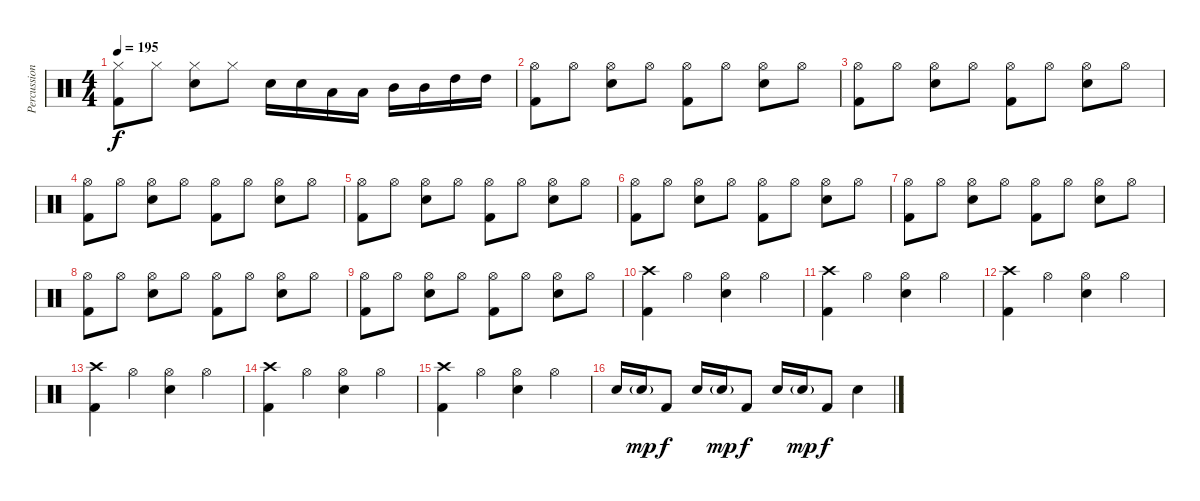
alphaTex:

\track ("Percussions" "Percussion") {instrument percussion}
\staff {score}
\articulation defaults
\ts (4 4)
\tempo 195
\clef neutral
\ks c
("Hi-Hat (closed)" "Kick (hit) 2").8{dy f} "Hi-Hat (closed)".8 ("Hi-Hat (closed)" "Electric Snare (hit)").8 "Hi-Hat (closed)".8 "Electric Snare (hit)".16 "Electric Snare (hit)".16 "Low Tom (hit)".16 "Low Tom (hit)".16 "Mid Tom (hit)".16 "Mid Tom (hit)".16 "High Tom (hit)".16 "High Tom (hit)".16 |
("Hi-Hat (open)" "Kick (hit) 2").8 "Hi-Hat (open)".8 ("Hi-Hat (open)" "Electric Snare (hit)").8 "Hi-Hat (open)".8 ("Hi-Hat (open)" "Kick (hit) 2").8 "Hi-Hat (open)".8 ("Hi-Hat (open)" "Electric Snare (hit)").8 "Hi-Hat (open)".8 |
("Hi-Hat (open)" "Kick (hit) 2").8 "Hi-Hat (open)".8 ("Hi-Hat (open)" "Electric Snare (hit)").8 "Hi-Hat (open)".8 ("Hi-Hat (open)" "Kick (hit) 2").8 "Hi-Hat (open)".8 ("Hi-Hat (open)" "Electric Snare (hit)").8 "Hi-Hat (open)".8 |
("Hi-Hat (open)" "Kick (hit) 2").8 "Hi-Hat (open)".8 ("Hi-Hat (open)" "Electric Snare (hit)").8 "Hi-Hat (open)".8 ("Hi-Hat (open)" "Kick (hit) 2").8 "Hi-Hat (open)".8 ("Hi-Hat (open)" "Electric Snare (hit)").8 "Hi-Hat (open)".8 |
("Hi-Hat (open)" "Kick (hit) 2").8 "Hi-Hat (open)".8 ("Hi-Hat (open)" "Electric Snare (hit)").8 "Hi-Hat (open)".8 ("Hi-Hat (open)" "Kick (hit) 2").8 "Hi-Hat (open)".8 ("Hi-Hat (open)" "Electric Snare (hit)").8 "Hi-Hat (open)".8 |
("Hi-Hat (open)" "Kick (hit) 2").8 "Hi-Hat (open)".8 ("Hi-Hat (open)" "Electric Snare (hit)").8 "Hi-Hat (open)".8 ("Hi-Hat (open)" "Kick (hit) 2").8 "Hi-Hat (open)".8 ("Hi-Hat (open)" "Electric Snare (hit)").8 "Hi-Hat (open)".8 |
("Hi-Hat (open)" "Kick (hit) 2").8 "Hi-Hat (open)".8 ("Hi-Hat (open)" "Electric Snare (hit)").8 "Hi-Hat (open)".8 ("Hi-Hat (open)" "Kick (hit) 2").8 "Hi-Hat (open)".8 ("Hi-Hat (open)" "Electric Snare (hit)").8 "Hi-Hat (open)".8 |
("Hi-Hat (open)" "Kick (hit) 2").8 "Hi-Hat (open)".8 ("Hi-Hat (open)" "Electric Snare (hit)").8 "Hi-Hat (open)".8 ("Hi-Hat (open)" "Kick (hit) 2").8 "Hi-Hat (open)".8 ("Hi-Hat (open)" "Electric Snare (hit)").8 "Hi-Hat (open)".8 |
("Hi-Hat (open)" "Kick (hit) 2").8 "Hi-Hat (open)".8 ("Hi-Hat (open)" "Electric Snare (hit)").8 "Hi-Hat (open)".8 ("Hi-Hat (open)" "Kick (hit) 2").8 "Hi-Hat (open)".8 ("Hi-Hat (open)" "Electric Snare (hit)").8 "Hi-Hat (open)".8 |
("Crash high (hit)" "Kick (hit) 2").4 "Hi-Hat (open)".4 ("Hi-Hat (open)" "Electric Snare (hit)").4 "Hi-Hat (open)".4 |
("Crash high (hit)" "Kick (hit) 2").4 "Hi-Hat (open)".4 ("Hi-Hat (open)" "Electric Snare (hit)").4 "Hi-Hat (open)".4 |
("Crash high (hit)" "Kick (hit) 2").4 "Hi-Hat (open)".4 ("Hi-Hat (open)" "Electric Snare (hit)").4 "Hi-Hat (open)".4 |
("Crash high (hit)" "Kick (hit) 2").4 "Hi-Hat (open)".4 ("Hi-Hat (open)" "Electric Snare (hit)").4 "Hi-Hat (open)".4 |
("Crash high (hit)" "Kick (hit) 2").4 "Hi-Hat (open)".4 ("Hi-Hat (open)" "Electric Snare (hit)").4 "Hi-Hat (open)".4 |
("Crash high (hit)" "Kick (hit) 2").4 "Hi-Hat (open)".4 ("Hi-Hat (open)" "Electric Snare (hit)").4 "Hi-Hat (open)".4 |
"Electric Snare (hit)".16 "Electric Snare (hit)"{g}.16{dy mp} "Kick (hit) 2".8{dy f} "Electric Snare (hit)".16 "Electric Snare (hit)"{g}.16{dy mp} "Kick (hit) 2".8{dy f} "Electric Snare (hit)".16 "Electric Snare (hit)"{g}.16{dy mp} "Kick (hit) 2".8{dy f} "Electric Snare (hit)".4
